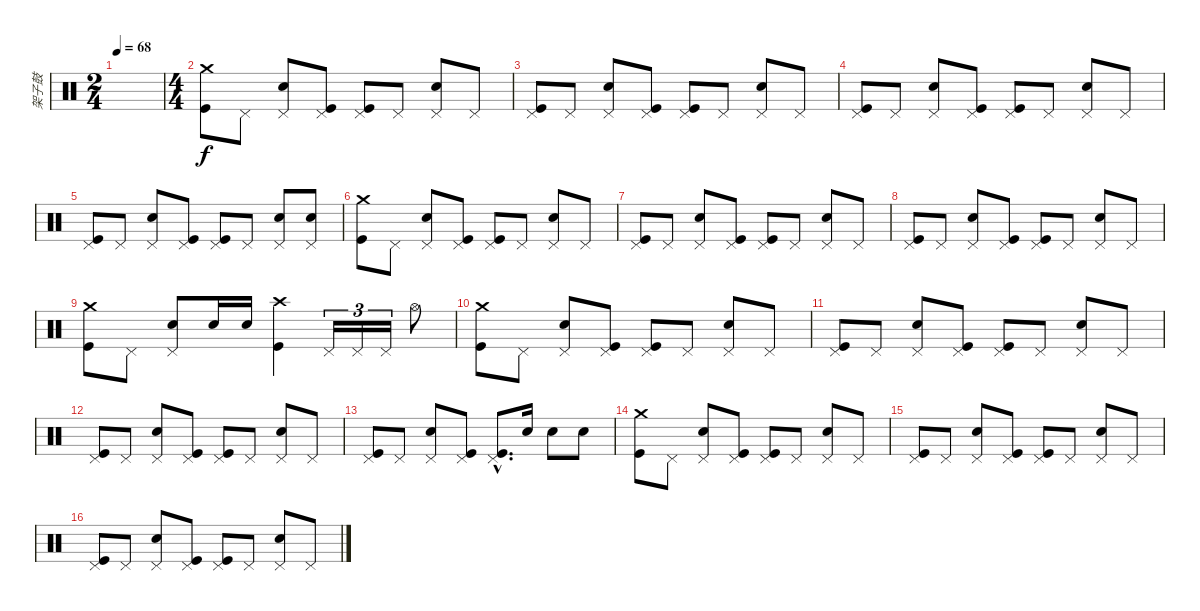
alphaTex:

\track ("架子鼓" "架子鼓") {instrument percussion}
\staff {score}
\articulation defaults
\ts (2 4)
\tempo 68
\clef neutral
\ks c
|
\ts (4 4)
("Crash medium (hit)" "Kick (hit)").8 "Pedal Hi-Hat (hit)".8 ("Pedal Hi-Hat (hit)" "Snare (hit) 2").8 ("Pedal Hi-Hat (hit)" "Kick (hit)").8 ("Pedal Hi-Hat (hit)" "Kick (hit)").8 "Pedal Hi-Hat (hit)".8 ("Pedal Hi-Hat (hit)" "Snare (hit) 2").8 "Pedal Hi-Hat (hit)".8 |
("Pedal Hi-Hat (hit)" "Kick (hit)").8 "Pedal Hi-Hat (hit)".8 ("Pedal Hi-Hat (hit)" "Snare (hit) 2").8 ("Pedal Hi-Hat (hit)" "Kick (hit)").8 ("Pedal Hi-Hat (hit)" "Kick (hit)").8 "Pedal Hi-Hat (hit)".8 ("Pedal Hi-Hat (hit)" "Snare (hit) 2").8 "Pedal Hi-Hat (hit)".8 |
("Pedal Hi-Hat (hit)" "Kick (hit)").8 "Pedal Hi-Hat (hit)".8 ("Pedal Hi-Hat (hit)" "Snare (hit) 2").8 ("Pedal Hi-Hat (hit)" "Kick (hit)").8 ("Pedal Hi-Hat (hit)" "Kick (hit)").8 "Pedal Hi-Hat (hit)".8 ("Pedal Hi-Hat (hit)" "Snare (hit) 2").8 "Pedal Hi-Hat (hit)".8 |
("Pedal Hi-Hat (hit)" "Kick (hit)").8 "Pedal Hi-Hat (hit)".8 ("Pedal Hi-Hat (hit)" "Snare (hit) 2").8 ("Pedal Hi-Hat (hit)" "Kick (hit)").8 ("Pedal Hi-Hat (hit)" "Kick (hit)").8 "Pedal Hi-Hat (hit)".8 ("Pedal Hi-Hat (hit)" "Snare (hit) 2").8 ("Pedal Hi-Hat (hit)" "Snare (hit) 2").8 |
("Crash medium (hit)" "Kick (hit)").8 "Pedal Hi-Hat (hit)".8 ("Pedal Hi-Hat (hit)" "Snare (hit) 2").8 ("Pedal Hi-Hat (hit)" "Kick (hit)").8 ("Pedal Hi-Hat (hit)" "Kick (hit)").8 "Pedal Hi-Hat (hit)".8 ("Pedal Hi-Hat (hit)" "Snare (hit) 2").8 "Pedal Hi-Hat (hit)".8 |
("Pedal Hi-Hat (hit)" "Kick (hit)").8 "Pedal Hi-Hat (hit)".8 ("Pedal Hi-Hat (hit)" "Snare (hit) 2").8 ("Pedal Hi-Hat (hit)" "Kick (hit)").8 ("Pedal Hi-Hat (hit)" "Kick (hit)").8 "Pedal Hi-Hat (hit)".8 ("Pedal Hi-Hat (hit)" "Snare (hit) 2").8 "Pedal Hi-Hat (hit)".8 |
("Pedal Hi-Hat (hit)" "Kick (hit)").8 "Pedal Hi-Hat (hit)".8 ("Pedal Hi-Hat (hit)" "Snare (hit) 2").8 ("Pedal Hi-Hat (hit)" "Kick (hit)").8 ("Pedal Hi-Hat (hit)" "Kick (hit)").8 "Pedal Hi-Hat (hit)".8 ("Pedal Hi-Hat (hit)" "Snare (hit) 2").8 "Pedal Hi-Hat (hit)".8 |
("Crash medium (hit)" "Kick (hit)").8 "Pedal Hi-Hat (hit)".8 ("Pedal Hi-Hat (hit)" "Snare (hit) 2").8 "Snare (hit) 2".16 "Snare (hit) 2".16 ("Crash high (hit)" "Kick (hit)").4 "Pedal Hi-Hat (hit)".16{tu (3 2)} "Pedal Hi-Hat (hit)".16{tu (3 2)} "Pedal Hi-Hat (hit)".16{tu (3 2)} "Hi-Hat (open)".8 |
("Crash medium (hit)" "Kick (hit)").8 "Pedal Hi-Hat (hit)".8 ("Pedal Hi-Hat (hit)" "Snare (hit) 2").8 ("Pedal Hi-Hat (hit)" "Kick (hit)").8 ("Pedal Hi-Hat (hit)" "Kick (hit)").8 "Pedal Hi-Hat (hit)".8 ("Pedal Hi-Hat (hit)" "Snare (hit) 2").8 "Pedal Hi-Hat (hit)".8 |
("Pedal Hi-Hat (hit)" "Kick (hit)").8 "Pedal Hi-Hat (hit)".8 ("Pedal Hi-Hat (hit)" "Snare (hit) 2").8 ("Pedal Hi-Hat (hit)" "Kick (hit)").8 ("Pedal Hi-Hat (hit)" "Kick (hit)").8 "Pedal Hi-Hat (hit)".8 ("Pedal Hi-Hat (hit)" "Snare (hit) 2").8 "Pedal Hi-Hat (hit)".8 |
("Pedal Hi-Hat (hit)" "Kick (hit)").8 "Pedal Hi-Hat (hit)".8 ("Pedal Hi-Hat (hit)" "Snare (hit) 2").8 ("Pedal Hi-Hat (hit)" "Kick (hit)").8 ("Pedal Hi-Hat (hit)" "Kick (hit)").8 "Pedal Hi-Hat (hit)".8 ("Pedal Hi-Hat (hit)" "Snare (hit) 2").8 "Pedal Hi-Hat (hit)".8 |
("Pedal Hi-Hat (hit)" "Kick (hit)").8 "Pedal Hi-Hat (hit)".8 ("Pedal Hi-Hat (hit)" "Snare (hit) 2").8 ("Pedal Hi-Hat (hit)" "Kick (hit)").8 ("Pedal Hi-Hat (hit)"{hac} "Kick (hit)"{hac}).8{d} "Snare (hit) 2".16 "Snare (hit) 2".8 "Snare (hit) 2".8 |
("Crash medium (hit)" "Kick (hit)").8 "Pedal Hi-Hat (hit)".8 ("Pedal Hi-Hat (hit)" "Snare (hit) 2").8 ("Pedal Hi-Hat (hit)" "Kick (hit)").8 ("Pedal Hi-Hat (hit)" "Kick (hit)").8 "Pedal Hi-Hat (hit)".8 ("Pedal Hi-Hat (hit)" "Snare (hit) 2").8 "Pedal Hi-Hat (hit)".8 |
("Pedal Hi-Hat (hit)" "Kick (hit)").8 "Pedal Hi-Hat (hit)".8 ("Pedal Hi-Hat (hit)" "Snare (hit) 2").8 ("Pedal Hi-Hat (hit)" "Kick (hit)").8 ("Pedal Hi-Hat (hit)" "Kick (hit)").8 "Pedal Hi-Hat (hit)".8 ("Pedal Hi-Hat (hit)" "Snare (hit) 2").8 "Pedal Hi-Hat (hit)".8 |
("Pedal Hi-Hat (hit)" "Kick (hit)").8 "Pedal Hi-Hat (hit)".8 ("Pedal Hi-Hat (hit)" "Snare (hit) 2").8 ("Pedal Hi-Hat (hit)" "Kick (hit)").8 ("Pedal Hi-Hat (hit)" "Kick (hit)").8 "Pedal Hi-Hat (hit)".8 ("Pedal Hi-Hat (hit)" "Snare (hit) 2").8 "Pedal Hi-Hat (hit)".8
